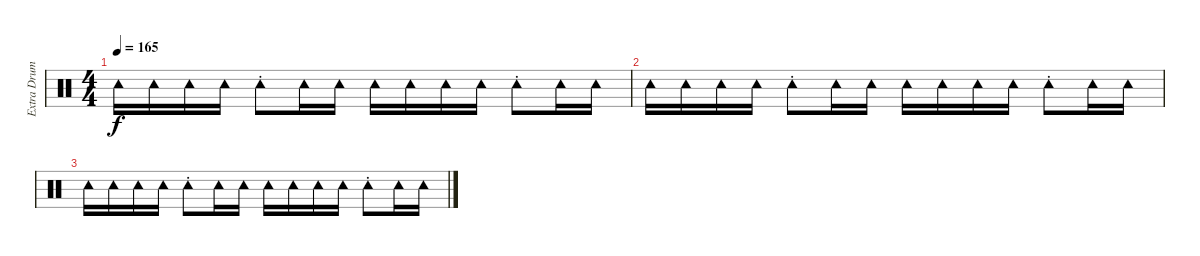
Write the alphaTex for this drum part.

\track ("Extra Drum : Tainaka Risu - Chan" "Extra Drum") {instrument percussion}
\staff {score}
\articulation defaults
\ts (4 4)
\tempo 165
\clef neutral
\ks c "Tambourine (hit)".16{dy f} "Tambourine (hit)".16 "Tambourine (hit)".16 "Tambourine (hit)".16 "Tambourine (hit)"{st}.8 "Tambourine (hit)".16 "Tambourine (hit)".16 "Tambourine (hit)".16 "Tambourine (hit)".16 "Tambourine (hit)".16 "Tambourine (hit)".16 "Tambourine (hit)"{st}.8 "Tambourine (hit)".16 "Tambourine (hit)".16
|
"Tambourine (hit)".16 "Tambourine (hit)".16 "Tambourine (hit)".16 "Tambourine (hit)".16 "Tambourine (hit)"{st}.8 "Tambourine (hit)".16 "Tambourine (hit)".16 "Tambourine (hit)".16 "Tambourine (hit)".16 "Tambourine (hit)".16 "Tambourine (hit)".16 "Tambourine (hit)"{st}.8 "Tambourine (hit)".16 "Tambourine (hit)".16 |
"Tambourine (hit)".16 "Tambourine (hit)".16 "Tambourine (hit)".16 "Tambourine (hit)".16 "Tambourine (hit)"{st}.8 "Tambourine (hit)".16 "Tambourine (hit)".16 "Tambourine (hit)".16 "Tambourine (hit)".16 "Tambourine (hit)".16 "Tambourine (hit)".16 "Tambourine (hit)"{st}.8 "Tambourine (hit)".16 "Tambourine (hit)".16
